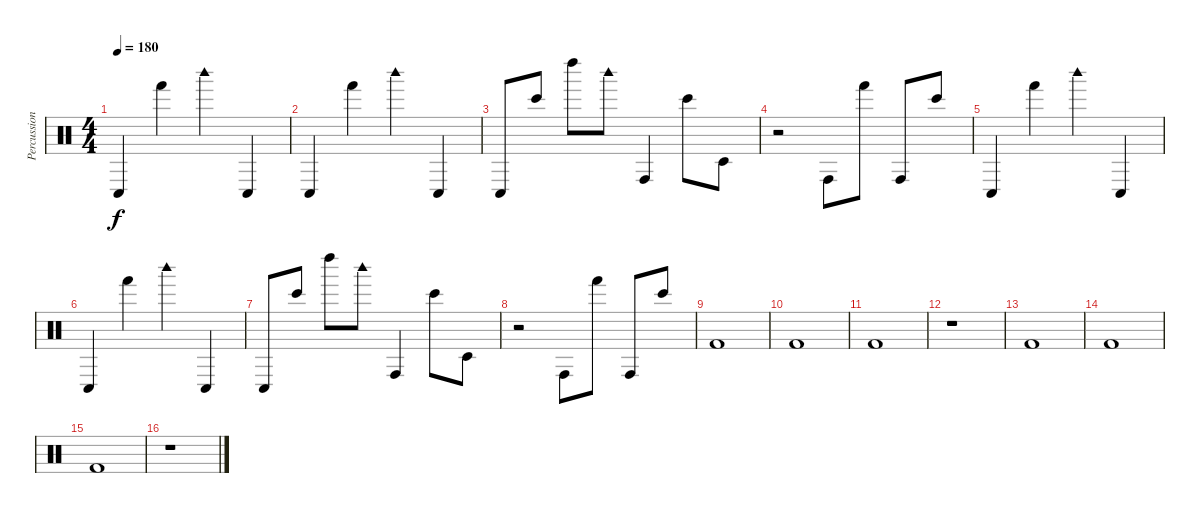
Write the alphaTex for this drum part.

\track ("Percussion / Drums" "Percussion") {instrument percussion}
\staff {score}
\articulation defaults
\ts (4 4)
\tempo 180
\clef neutral
\ks c "Conga low (hit)".4{dy f} "Hand (hit)".4 "Woodblock high (hit)".4 "Conga low (hit)".4
|
"Conga low (hit)".4 "Hand (hit)".4 "Woodblock high (hit)".4 "Conga low (hit)".4 |
"Conga low (hit)".8 "Bongo High (hit)".8 "Left Maraca (hit)".8 "Woodblock high (hit)".8 "Conga high (hit)".4 "Bongo High (hit)".8 "Timbale low (hit)".8 |
r.2 "Conga high (hit)".8 "Hand (hit)".8 "Conga high (hit)".8 "Bongo High (hit)".8 |
"Conga low (hit)".4 "Hand (hit)".4 "Woodblock high (hit)".4 "Conga low (hit)".4 |
"Conga low (hit)".4 "Hand (hit)".4 "Woodblock high (hit)".4 "Conga low (hit)".4 |
"Conga low (hit)".8 "Bongo High (hit)".8 "Left Maraca (hit)".8 "Woodblock high (hit)".8 "Conga high (hit)".4 "Bongo High (hit)".8 "Timbale low (hit)".8 |
r.2 "Conga high (hit)".8 "Hand (hit)".8 "Conga high (hit)".8 "Bongo High (hit)".8 |
"Kick (hit) 2".1 |
"Kick (hit) 2".1 |
"Kick (hit) 2".1 |
r.1 |
"Kick (hit) 2".1 |
"Kick (hit) 2".1 |
"Kick (hit) 2".1 |
r.1
